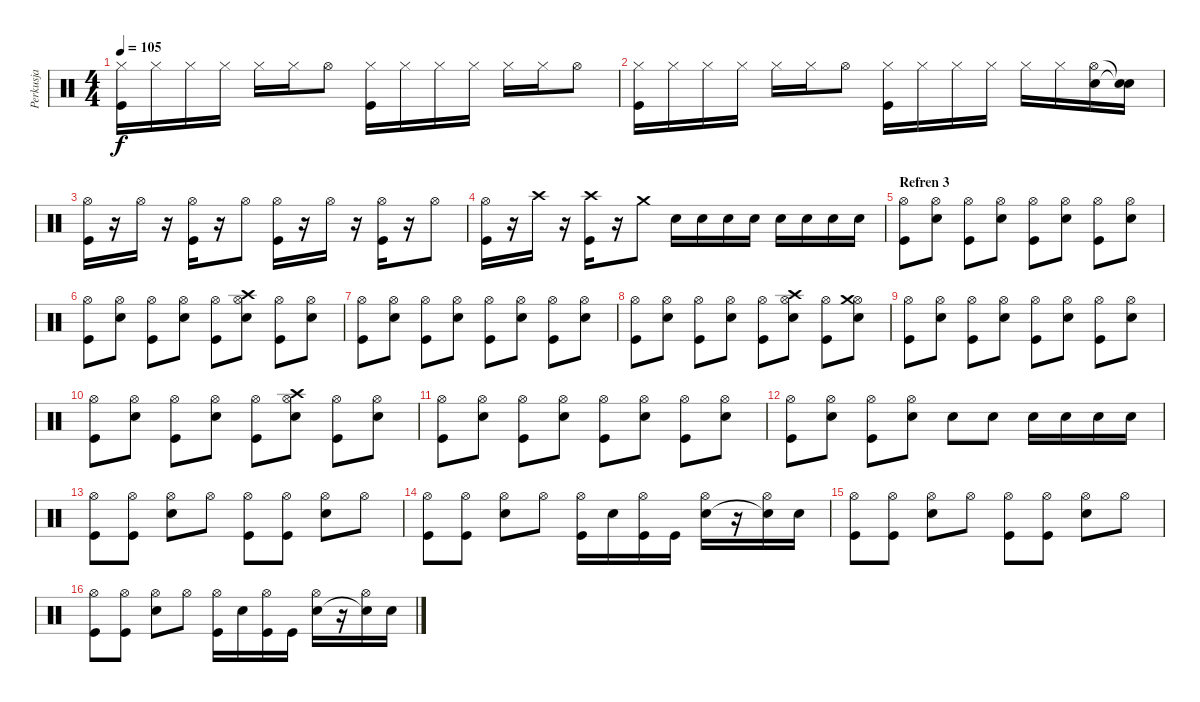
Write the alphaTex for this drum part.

\track ("Perkusja" "Perkusja") {instrument percussion}
\staff {score}
\articulation defaults
\ts (4 4)
\tempo 105
\clef neutral
\ks c
("Hi-Hat (closed)" "Kick (hit)").16{dy f} "Hi-Hat (closed)".16 "Hi-Hat (closed)".16 "Hi-Hat (closed)".16 "Hi-Hat (closed)".16 "Hi-Hat (closed)".16 "Hi-Hat (open)".8 ("Hi-Hat (closed)" "Kick (hit)").16 "Hi-Hat (closed)".16 "Hi-Hat (closed)".16 "Hi-Hat (closed)".16 "Hi-Hat (closed)".16 "Hi-Hat (closed)".16 "Hi-Hat (open)".8 |
("Hi-Hat (closed)" "Kick (hit)").16 "Hi-Hat (closed)".16 "Hi-Hat (closed)".16 "Hi-Hat (closed)".16 "Hi-Hat (closed)".16 "Hi-Hat (closed)".16 "Hi-Hat (open)".8 ("Hi-Hat (closed)" "Kick (hit)").16 "Hi-Hat (closed)".16 "Hi-Hat (closed)".16 "Hi-Hat (closed)".16 "Hi-Hat (closed)".16 "Hi-Hat (closed)".16 ("Hi-Hat (open)" "Snare (hit) 2").16 ("Snare (hit)"{t} "Snare (hit) 2"{t}).16 |
("Hi-Hat (open)" "Kick (hit)").16 r.16 "Hi-Hat (open)".16 r.16 ("Hi-Hat (open)" "Kick (hit)").16 r.16 "Hi-Hat (open)".8 ("Hi-Hat (open)" "Kick (hit)").16 r.16 "Hi-Hat (open)".16 r.16 ("Hi-Hat (open)" "Kick (hit)").16 r.16 "Hi-Hat (open)".8 |
("Hi-Hat (open)" "Kick (hit)").16 r.16 "Crash high (hit)".16 r.16 ("Crash high (hit)" "Kick (hit)").16 r.16 "Crash medium (hit)".8 "Snare (hit) 2".16{volume 8} "Snare (hit) 2".16 "Snare (hit) 2".16{volume 12} "Snare (hit) 2".16 "Snare (hit) 2".16{volume 14} "Snare (hit) 2".16 "Snare (hit) 2".16{volume 16} "Snare (hit) 2".16 |
\section ("" "Refren 3")
("Hi-Hat (open)" "Kick (hit)").8{volume 13} ("Hi-Hat (open)" "Snare (hit) 2").8 ("Hi-Hat (open)" "Kick (hit)").8 ("Hi-Hat (open)" "Snare (hit) 2").8 ("Hi-Hat (open)" "Kick (hit)").8 ("Hi-Hat (open)" "Snare (hit) 2").8 ("Hi-Hat (open)" "Kick (hit)").8 ("Hi-Hat (open)" "Snare (hit) 2").8 |
("Hi-Hat (open)" "Kick (hit)").8 ("Hi-Hat (open)" "Snare (hit) 2").8 ("Hi-Hat (open)" "Kick (hit)").8 ("Hi-Hat (open)" "Snare (hit) 2").8 ("Hi-Hat (open)" "Kick (hit)").8 ("Hi-Hat (open)" "Crash high (hit)" "Snare (hit) 2").8 ("Hi-Hat (open)" "Kick (hit)").8 ("Hi-Hat (open)" "Snare (hit) 2").8 |
("Hi-Hat (open)" "Kick (hit)").8 ("Hi-Hat (open)" "Snare (hit) 2").8 ("Hi-Hat (open)" "Kick (hit)").8 ("Hi-Hat (open)" "Snare (hit) 2").8 ("Hi-Hat (open)" "Kick (hit)").8 ("Hi-Hat (open)" "Snare (hit) 2").8 ("Hi-Hat (open)" "Kick (hit)").8 ("Hi-Hat (open)" "Snare (hit) 2").8 |
("Hi-Hat (open)" "Kick (hit)").8 ("Hi-Hat (open)" "Snare (hit) 2").8 ("Hi-Hat (open)" "Kick (hit)").8 ("Hi-Hat (open)" "Snare (hit) 2").8 ("Hi-Hat (open)" "Kick (hit)").8 ("Hi-Hat (open)" "Crash high (hit)" "Snare (hit) 2").8 ("Hi-Hat (open)" "Kick (hit)").8 ("Hi-Hat (open)" "Crash medium (hit)" "Snare (hit) 2").8 |
("Hi-Hat (open)" "Kick (hit)").8 ("Hi-Hat (open)" "Snare (hit) 2").8 ("Hi-Hat (open)" "Kick (hit)").8 ("Hi-Hat (open)" "Snare (hit) 2").8 ("Hi-Hat (open)" "Kick (hit)").8 ("Hi-Hat (open)" "Snare (hit) 2").8 ("Hi-Hat (open)" "Kick (hit)").8 ("Hi-Hat (open)" "Snare (hit) 2").8 |
("Hi-Hat (open)" "Kick (hit)").8 ("Hi-Hat (open)" "Snare (hit) 2").8 ("Hi-Hat (open)" "Kick (hit)").8 ("Hi-Hat (open)" "Snare (hit) 2").8 ("Hi-Hat (open)" "Kick (hit)").8 ("Hi-Hat (open)" "Crash high (hit)" "Snare (hit) 2").8 ("Hi-Hat (open)" "Kick (hit)").8 ("Hi-Hat (open)" "Snare (hit) 2").8 |
("Hi-Hat (open)" "Kick (hit)").8 ("Hi-Hat (open)" "Snare (hit) 2").8 ("Hi-Hat (open)" "Kick (hit)").8 ("Hi-Hat (open)" "Snare (hit) 2").8 ("Hi-Hat (open)" "Kick (hit)").8 ("Hi-Hat (open)" "Snare (hit) 2").8 ("Hi-Hat (open)" "Kick (hit)").8 ("Hi-Hat (open)" "Snare (hit) 2").8 |
("Hi-Hat (open)" "Kick (hit)").8 ("Hi-Hat (open)" "Snare (hit) 2").8 ("Hi-Hat (open)" "Kick (hit)").8 ("Hi-Hat (open)" "Snare (hit) 2").8 "Snare (hit) 2".8 "Snare (hit) 2".8 "Snare (hit) 2".16 "Snare (hit) 2".16 "Snare (hit) 2".16 "Snare (hit) 2".16 |
("Hi-Hat (open)" "Kick (hit)").8 ("Hi-Hat (open)" "Kick (hit)").8 ("Hi-Hat (open)" "Snare (hit) 2").8 "Hi-Hat (open)".8 ("Hi-Hat (open)" "Kick (hit)").8 ("Hi-Hat (open)" "Kick (hit)").8 ("Hi-Hat (open)" "Snare (hit) 2").8 "Hi-Hat (open)".8 |
("Hi-Hat (open)" "Kick (hit)").8 ("Hi-Hat (open)" "Kick (hit)").8 ("Hi-Hat (open)" "Snare (hit) 2").8 "Hi-Hat (open)".8 ("Hi-Hat (open)" "Kick (hit)").16 "Snare (hit) 2".16 ("Hi-Hat (open)" "Kick (hit)").16 "Kick (hit)".16 ("Hi-Hat (open)" "Snare (hit) 2").16 r.16 ("Hi-Hat (open)" "Snare (hit)"{t}).16 "Snare (hit) 2".16 |
("Hi-Hat (open)" "Kick (hit)").8 ("Hi-Hat (open)" "Kick (hit)").8 ("Hi-Hat (open)" "Snare (hit) 2").8 "Hi-Hat (open)".8 ("Hi-Hat (open)" "Kick (hit)").8 ("Hi-Hat (open)" "Kick (hit)").8 ("Hi-Hat (open)" "Snare (hit) 2").8 "Hi-Hat (open)".8 |
("Hi-Hat (open)" "Kick (hit)").8 ("Hi-Hat (open)" "Kick (hit)").8 ("Hi-Hat (open)" "Snare (hit) 2").8 "Hi-Hat (open)".8 ("Hi-Hat (open)" "Kick (hit)").16 "Snare (hit) 2".16 ("Hi-Hat (open)" "Kick (hit)").16 "Kick (hit)".16 ("Hi-Hat (open)" "Snare (hit) 2").16 r.16 ("Hi-Hat (open)" "Snare (hit)"{t}).16 "Snare (hit) 2".16
